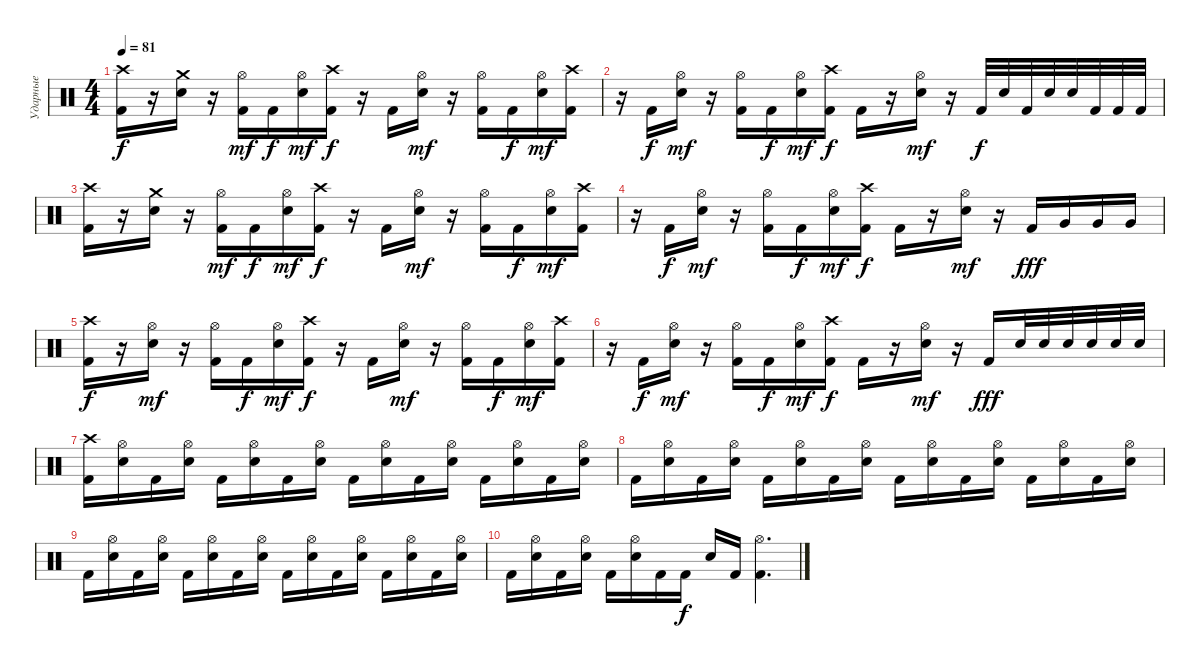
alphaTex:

\track ("Ударные" "Ударные") {instrument percussion}
\staff {score}
\articulation defaults
\ts (4 4)
\tempo 81
\clef neutral
\ks c
("Kick (hit) 2" "Crash high (hit)").16{dy f} r.16 ("Electric Snare (hit)" "Crash medium (hit)").16 r.16 ("Kick (hit) 2" "Hi-Hat (open)").16{dy mf} "Kick (hit) 2".16{dy f} ("Electric Snare (hit)" "Hi-Hat (open)").16{dy mf} ("Crash high (hit)" "Kick (hit) 2").16{dy f} r.16 "Kick (hit) 2".16 ("Electric Snare (hit)" "Hi-Hat (open)").16{dy mf} r.16 ("Kick (hit) 2" "Hi-Hat (open)").16 "Kick (hit) 2".16{dy f} ("Electric Snare (hit)" "Hi-Hat (open)").16{dy mf} ("Crash high (hit)" "Kick (hit) 2").16 |
r.16 "Kick (hit) 2".16{dy f} ("Electric Snare (hit)" "Hi-Hat (open)").16{dy mf} r.16 ("Kick (hit) 2" "Hi-Hat (open)").16 "Kick (hit) 2".16{dy f} ("Electric Snare (hit)" "Hi-Hat (open)").16{dy mf} ("Crash high (hit)" "Kick (hit) 2").16{dy f} "Kick (hit) 2".16 r.16 ("Electric Snare (hit)" "Hi-Hat (open)").16{dy mf} r.16 "Kick (hit) 2".32{dy f} "Electric Snare (hit)".32 "Kick (hit) 2".32 "Electric Snare (hit)".32 "Electric Snare (hit)".32 "Kick (hit) 2".32 "Kick (hit) 2".32 "Kick (hit) 2".32 |
("Kick (hit) 2" "Crash high (hit)").16 r.16 ("Electric Snare (hit)" "Crash medium (hit)").16 r.16 ("Kick (hit) 2" "Hi-Hat (open)").16{dy mf} "Kick (hit) 2".16{dy f} ("Electric Snare (hit)" "Hi-Hat (open)").16{dy mf} ("Crash high (hit)" "Kick (hit) 2").16{dy f} r.16 "Kick (hit) 2".16 ("Electric Snare (hit)" "Hi-Hat (open)").16{dy mf} r.16 ("Kick (hit) 2" "Hi-Hat (open)").16 "Kick (hit) 2".16{dy f} ("Electric Snare (hit)" "Hi-Hat (open)").16{dy mf} ("Crash high (hit)" "Kick (hit) 2").16 |
r.16 "Kick (hit) 2".16{dy f} ("Electric Snare (hit)" "Hi-Hat (open)").16{dy mf} r.16 ("Kick (hit) 2" "Hi-Hat (open)").16 "Kick (hit) 2".16{dy f} ("Electric Snare (hit)" "Hi-Hat (open)").16{dy mf} ("Crash high (hit)" "Kick (hit) 2").16{dy f} "Kick (hit) 2".16 r.16 ("Electric Snare (hit)" "Hi-Hat (open)").16{dy mf} r.16 "Kick (hit) 2".16{dy fff} "Very Low Tom (hit)".16 "Very Low Tom (hit)".16 "Very Low Tom (hit)".16 |
("Kick (hit) 2" "Crash high (hit)").16{dy f} r.16 ("Electric Snare (hit)" "Hi-Hat (open)").16{dy mf} r.16 ("Kick (hit) 2" "Hi-Hat (open)").16 "Kick (hit) 2".16{dy f} ("Electric Snare (hit)" "Hi-Hat (open)").16{dy mf} ("Crash high (hit)" "Kick (hit) 2").16{dy f} r.16 "Kick (hit) 2".16 ("Electric Snare (hit)" "Hi-Hat (open)").16{dy mf} r.16 ("Kick (hit) 2" "Hi-Hat (open)").16 "Kick (hit) 2".16{dy f} ("Electric Snare (hit)" "Hi-Hat (open)").16{dy mf} ("Crash high (hit)" "Kick (hit) 2").16 |
r.16 "Kick (hit) 2".16{dy f} ("Electric Snare (hit)" "Hi-Hat (open)").16{dy mf} r.16 ("Kick (hit) 2" "Hi-Hat (open)").16 "Kick (hit) 2".16{dy f} ("Electric Snare (hit)" "Hi-Hat (open)").16{dy mf} ("Crash high (hit)" "Kick (hit) 2").16{dy f} "Kick (hit) 2".16 r.16 ("Electric Snare (hit)" "Hi-Hat (open)").16{dy mf} r.16 "Kick (hit) 2".16{dy fff} "Electric Snare (hit)".32 "Electric Snare (hit)".32 "Electric Snare (hit)".32 "Electric Snare (hit)".32 "Electric Snare (hit)".32 "Electric Snare (hit)".32 |
("Kick (hit) 2" "Crash high (hit)").16 ("Electric Snare (hit)" "Hi-Hat (open)").16 "Kick (hit) 2".16 ("Electric Snare (hit)" "Hi-Hat (open)").16 "Kick (hit) 2".16 ("Electric Snare (hit)" "Hi-Hat (open)").16 "Kick (hit) 2".16 ("Electric Snare (hit)" "Hi-Hat (open)").16 "Kick (hit) 2".16 ("Electric Snare (hit)" "Hi-Hat (open)").16 "Kick (hit) 2".16 ("Electric Snare (hit)" "Hi-Hat (open)").16 "Kick (hit) 2".16 ("Electric Snare (hit)" "Hi-Hat (open)").16 "Kick (hit) 2".16 ("Electric Snare (hit)" "Hi-Hat (open)").16 |
"Kick (hit) 2".16 ("Electric Snare (hit)" "Hi-Hat (open)").16 "Kick (hit) 2".16 ("Electric Snare (hit)" "Hi-Hat (open)").16 "Kick (hit) 2".16 ("Electric Snare (hit)" "Hi-Hat (open)").16 "Kick (hit) 2".16 ("Electric Snare (hit)" "Hi-Hat (open)").16 "Kick (hit) 2".16 ("Electric Snare (hit)" "Hi-Hat (open)").16 "Kick (hit) 2".16 ("Electric Snare (hit)" "Hi-Hat (open)").16 "Kick (hit) 2".16 ("Electric Snare (hit)" "Hi-Hat (open)").16 "Kick (hit) 2".16 ("Electric Snare (hit)" "Hi-Hat (open)").16 |
"Kick (hit) 2".16 ("Electric Snare (hit)" "Hi-Hat (open)").16 "Kick (hit) 2".16 ("Electric Snare (hit)" "Hi-Hat (open)").16 "Kick (hit) 2".16 ("Electric Snare (hit)" "Hi-Hat (open)").16 "Kick (hit) 2".16 ("Electric Snare (hit)" "Hi-Hat (open)").16 "Kick (hit) 2".16 ("Electric Snare (hit)" "Hi-Hat (open)").16 "Kick (hit) 2".16 ("Electric Snare (hit)" "Hi-Hat (open)").16 "Kick (hit) 2".16 ("Electric Snare (hit)" "Hi-Hat (open)").16 "Kick (hit) 2".16 ("Electric Snare (hit)" "Hi-Hat (open)").16 |
"Kick (hit) 2".16 ("Electric Snare (hit)" "Hi-Hat (open)").16 "Kick (hit) 2".16 ("Electric Snare (hit)" "Hi-Hat (open)").16 "Kick (hit) 2".16 ("Electric Snare (hit)" "Hi-Hat (open)").16 "Kick (hit) 2".16 "Kick (hit) 2".16{dy f} "Electric Snare (hit)".16 "Kick (hit) 2".16 ("Kick (hit) 2" "Hi-Hat (open)").4{d}
